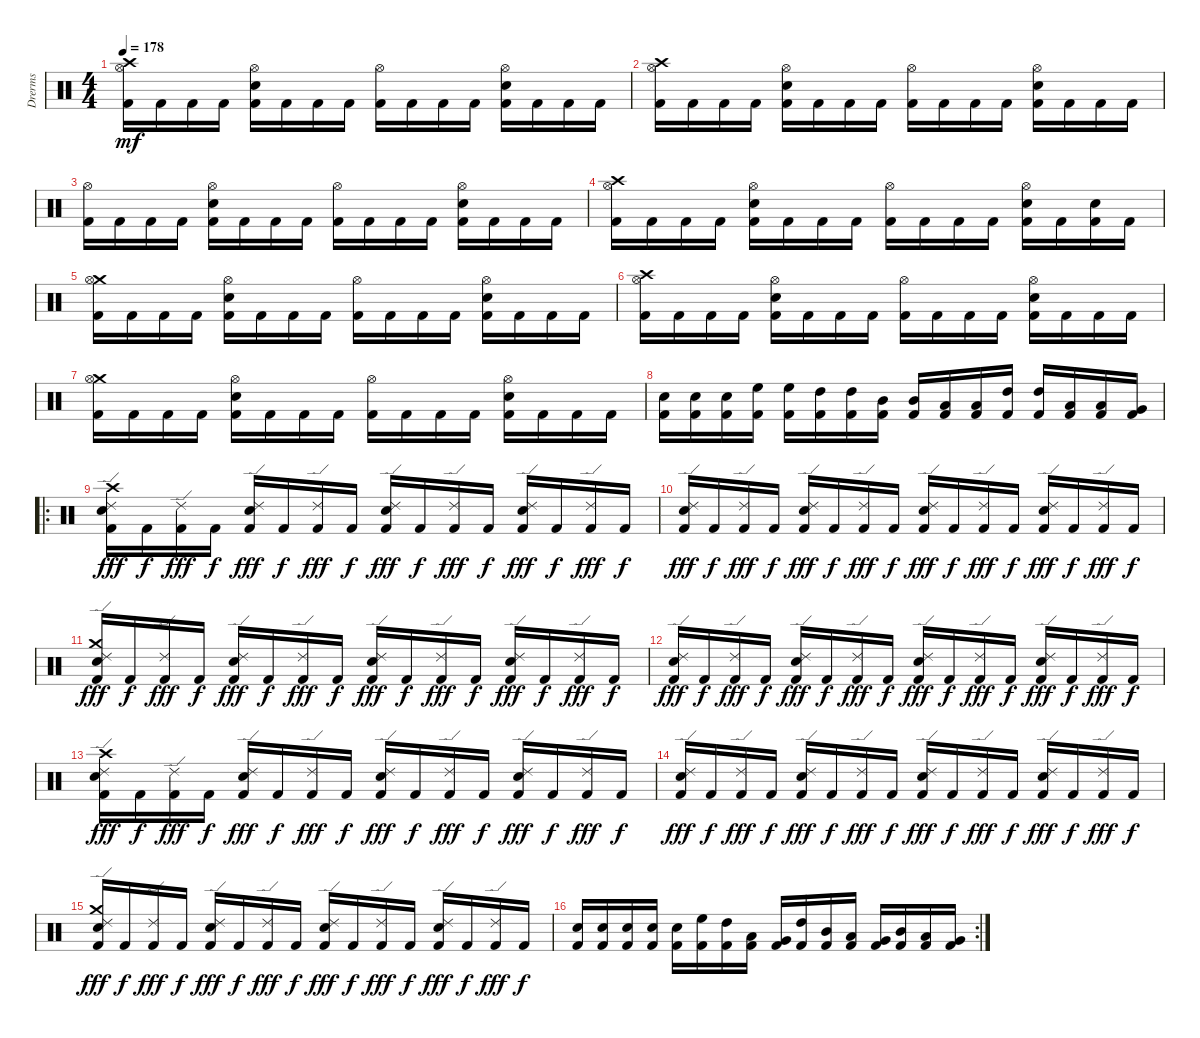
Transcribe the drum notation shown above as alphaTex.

\track ("Drerms" "Drerms") {instrument percussion}
\staff {score}
\articulation defaults
\ts (4 4)
\tempo 178
\clef neutral
\ks c
("Crash high (hit)" "Hi-Hat (open)" "Kick (hit) 2").16{dy mf} "Kick (hit) 2".16 "Kick (hit) 2".16 "Kick (hit) 2".16 ("Snare (hit) 2" "Hi-Hat (open)" "Kick (hit) 2").16 "Kick (hit) 2".16 "Kick (hit) 2".16 "Kick (hit) 2".16 ("Hi-Hat (open)" "Kick (hit) 2").16 "Kick (hit) 2".16 "Kick (hit) 2".16 "Kick (hit) 2".16 ("Snare (hit) 2" "Hi-Hat (open)" "Kick (hit) 2").16 "Kick (hit) 2".16 "Kick (hit) 2".16 "Kick (hit) 2".16 |
("Crash high (hit)" "Hi-Hat (open)" "Kick (hit) 2").16 "Kick (hit) 2".16 "Kick (hit) 2".16 "Kick (hit) 2".16 ("Snare (hit) 2" "Hi-Hat (open)" "Kick (hit) 2").16 "Kick (hit) 2".16 "Kick (hit) 2".16 "Kick (hit) 2".16 ("Hi-Hat (open)" "Kick (hit) 2").16 "Kick (hit) 2".16 "Kick (hit) 2".16 "Kick (hit) 2".16 ("Snare (hit) 2" "Hi-Hat (open)" "Kick (hit) 2").16 "Kick (hit) 2".16 "Kick (hit) 2".16 "Kick (hit) 2".16 |
("Hi-Hat (open)" "Kick (hit) 2").16 "Kick (hit) 2".16 "Kick (hit) 2".16 "Kick (hit) 2".16 ("Snare (hit) 2" "Hi-Hat (open)" "Kick (hit) 2").16 "Kick (hit) 2".16 "Kick (hit) 2".16 "Kick (hit) 2".16 ("Hi-Hat (open)" "Kick (hit) 2").16 "Kick (hit) 2".16 "Kick (hit) 2".16 "Kick (hit) 2".16 ("Snare (hit) 2" "Hi-Hat (open)" "Kick (hit) 2").16 "Kick (hit) 2".16 "Kick (hit) 2".16 "Kick (hit) 2".16 |
("Crash high (hit)" "Hi-Hat (open)" "Kick (hit) 2").16 "Kick (hit) 2".16 "Kick (hit) 2".16 "Kick (hit) 2".16 ("Snare (hit) 2" "Hi-Hat (open)" "Kick (hit) 2").16 "Kick (hit) 2".16 "Kick (hit) 2".16 "Kick (hit) 2".16 ("Hi-Hat (open)" "Kick (hit) 2").16 "Kick (hit) 2".16 "Kick (hit) 2".16 "Kick (hit) 2".16 ("Snare (hit) 2" "Hi-Hat (open)" "Kick (hit) 2").16 "Kick (hit) 2".16 ("Snare (hit) 2" "Kick (hit) 2").16 "Kick (hit) 2".16 |
("Crash medium (hit)" "Hi-Hat (open)" "Kick (hit) 2").16 "Kick (hit) 2".16 "Kick (hit) 2".16 "Kick (hit) 2".16 ("Snare (hit) 2" "Hi-Hat (open)" "Kick (hit) 2").16 "Kick (hit) 2".16 "Kick (hit) 2".16 "Kick (hit) 2".16 ("Hi-Hat (open)" "Kick (hit) 2").16 "Kick (hit) 2".16 "Kick (hit) 2".16 "Kick (hit) 2".16 ("Snare (hit) 2" "Hi-Hat (open)" "Kick (hit) 2").16 "Kick (hit) 2".16 "Kick (hit) 2".16 "Kick (hit) 2".16 |
("Crash high (hit)" "Hi-Hat (open)" "Kick (hit) 2").16 "Kick (hit) 2".16 "Kick (hit) 2".16 "Kick (hit) 2".16 ("Snare (hit) 2" "Hi-Hat (open)" "Kick (hit) 2").16 "Kick (hit) 2".16 "Kick (hit) 2".16 "Kick (hit) 2".16 ("Hi-Hat (open)" "Kick (hit) 2").16 "Kick (hit) 2".16 "Kick (hit) 2".16 "Kick (hit) 2".16 ("Snare (hit) 2" "Hi-Hat (open)" "Kick (hit) 2").16 "Kick (hit) 2".16 "Kick (hit) 2".16 "Kick (hit) 2".16 |
("Crash medium (hit)" "Hi-Hat (open)" "Kick (hit) 2").16 "Kick (hit) 2".16 "Kick (hit) 2".16 "Kick (hit) 2".16 ("Snare (hit) 2" "Hi-Hat (open)" "Kick (hit) 2").16 "Kick (hit) 2".16 "Kick (hit) 2".16 "Kick (hit) 2".16 ("Hi-Hat (open)" "Kick (hit) 2").16 "Kick (hit) 2".16 "Kick (hit) 2".16 "Kick (hit) 2".16 ("Snare (hit) 2" "Hi-Hat (open)" "Kick (hit) 2").16 "Kick (hit) 2".16 "Kick (hit) 2".16 "Kick (hit) 2".16 |
("Snare (hit) 2" "Kick (hit) 2").16 ("Snare (hit) 2" "Kick (hit) 2").16 ("Snare (hit) 2" "Kick (hit) 2").16 ("High Floor Tom (hit)" "Kick (hit) 2").16 ("High Floor Tom (hit)" "Kick (hit) 2").16 ("High Tom (hit)" "Kick (hit) 2").16 ("High Tom (hit)" "Kick (hit) 2").16 ("Mid Tom (hit)" "Kick (hit) 2").16 ("Mid Tom (hit)" "Kick (hit) 2").16 ("Low Tom (hit)" "Kick (hit) 2").16 ("Low Tom (hit)" "Kick (hit) 2").16 ("High Tom (hit)" "Kick (hit) 2").16 ("High Tom (hit)" "Kick (hit) 2").16 ("Low Tom (hit)" "Kick (hit) 2").16 ("Low Tom (hit)" "Kick (hit) 2").16 ("Very Low Tom (hit)" "Kick (hit) 2").16 |
\ro
("Crash high (hit)" "Snare (hit) 2" "Ride (edge) 2" "Kick (hit) 2").16{dy fff} "Kick (hit) 2".16{dy f} ("Ride (edge) 2" "Kick (hit) 2").16{dy fff} "Kick (hit) 2".16{dy f} ("Snare (hit) 2" "Ride (edge) 2" "Kick (hit) 2").16{dy fff} "Kick (hit) 2".16{dy f} ("Ride (edge) 2" "Kick (hit) 2").16{dy fff} "Kick (hit) 2".16{dy f} ("Snare (hit) 2" "Ride (edge) 2" "Kick (hit) 2").16{dy fff} "Kick (hit) 2".16{dy f} ("Ride (edge) 2" "Kick (hit) 2").16{dy fff} "Kick (hit) 2".16{dy f} ("Snare (hit) 2" "Ride (edge) 2" "Kick (hit) 2").16{dy fff} "Kick (hit) 2".16{dy f} ("Ride (edge) 2" "Kick (hit) 2").16{dy fff} "Kick (hit) 2".16{dy f} |
("Snare (hit) 2" "Ride (edge) 2" "Kick (hit) 2").16{dy fff} "Kick (hit) 2".16{dy f} ("Ride (edge) 2" "Kick (hit) 2").16{dy fff} "Kick (hit) 2".16{dy f} ("Snare (hit) 2" "Ride (edge) 2" "Kick (hit) 2").16{dy fff} "Kick (hit) 2".16{dy f} ("Ride (edge) 2" "Kick (hit) 2").16{dy fff} "Kick (hit) 2".16{dy f} ("Snare (hit) 2" "Ride (edge) 2" "Kick (hit) 2").16{dy fff} "Kick (hit) 2".16{dy f} ("Ride (edge) 2" "Kick (hit) 2").16{dy fff} "Kick (hit) 2".16{dy f} ("Snare (hit) 2" "Ride (edge) 2" "Kick (hit) 2").16{dy fff} "Kick (hit) 2".16{dy f} ("Ride (edge) 2" "Kick (hit) 2").16{dy fff} "Kick (hit) 2".16{dy f} |
("Crash medium (hit)" "Snare (hit) 2" "Ride (edge) 2" "Kick (hit) 2").16{dy fff} "Kick (hit) 2".16{dy f} ("Ride (edge) 2" "Kick (hit) 2").16{dy fff} "Kick (hit) 2".16{dy f} ("Snare (hit) 2" "Ride (edge) 2" "Kick (hit) 2").16{dy fff} "Kick (hit) 2".16{dy f} ("Ride (edge) 2" "Kick (hit) 2").16{dy fff} "Kick (hit) 2".16{dy f} ("Snare (hit) 2" "Ride (edge) 2" "Kick (hit) 2").16{dy fff} "Kick (hit) 2".16{dy f} ("Ride (edge) 2" "Kick (hit) 2").16{dy fff} "Kick (hit) 2".16{dy f} ("Snare (hit) 2" "Ride (edge) 2" "Kick (hit) 2").16{dy fff} "Kick (hit) 2".16{dy f} ("Ride (edge) 2" "Kick (hit) 2").16{dy fff} "Kick (hit) 2".16{dy f} |
("Snare (hit) 2" "Ride (edge) 2" "Kick (hit) 2").16{dy fff} "Kick (hit) 2".16{dy f} ("Ride (edge) 2" "Kick (hit) 2").16{dy fff} "Kick (hit) 2".16{dy f} ("Snare (hit) 2" "Ride (edge) 2" "Kick (hit) 2").16{dy fff} "Kick (hit) 2".16{dy f} ("Ride (edge) 2" "Kick (hit) 2").16{dy fff} "Kick (hit) 2".16{dy f} ("Snare (hit) 2" "Ride (edge) 2" "Kick (hit) 2").16{dy fff} "Kick (hit) 2".16{dy f} ("Ride (edge) 2" "Kick (hit) 2").16{dy fff} "Kick (hit) 2".16{dy f} ("Snare (hit) 2" "Ride (edge) 2" "Kick (hit) 2").16{dy fff} "Kick (hit) 2".16{dy f} ("Ride (edge) 2" "Kick (hit) 2").16{dy fff} "Kick (hit) 2".16{dy f} |
("Crash high (hit)" "Snare (hit) 2" "Ride (edge) 2" "Kick (hit) 2").16{dy fff} "Kick (hit) 2".16{dy f} ("Ride (edge) 2" "Kick (hit) 2").16{dy fff} "Kick (hit) 2".16{dy f} ("Snare (hit) 2" "Ride (edge) 2" "Kick (hit) 2").16{dy fff} "Kick (hit) 2".16{dy f} ("Ride (edge) 2" "Kick (hit) 2").16{dy fff} "Kick (hit) 2".16{dy f} ("Snare (hit) 2" "Ride (edge) 2" "Kick (hit) 2").16{dy fff} "Kick (hit) 2".16{dy f} ("Ride (edge) 2" "Kick (hit) 2").16{dy fff} "Kick (hit) 2".16{dy f} ("Snare (hit) 2" "Ride (edge) 2" "Kick (hit) 2").16{dy fff} "Kick (hit) 2".16{dy f} ("Ride (edge) 2" "Kick (hit) 2").16{dy fff} "Kick (hit) 2".16{dy f} |
("Snare (hit) 2" "Ride (edge) 2" "Kick (hit) 2").16{dy fff} "Kick (hit) 2".16{dy f} ("Ride (edge) 2" "Kick (hit) 2").16{dy fff} "Kick (hit) 2".16{dy f} ("Snare (hit) 2" "Ride (edge) 2" "Kick (hit) 2").16{dy fff} "Kick (hit) 2".16{dy f} ("Ride (edge) 2" "Kick (hit) 2").16{dy fff} "Kick (hit) 2".16{dy f} ("Snare (hit) 2" "Ride (edge) 2" "Kick (hit) 2").16{dy fff} "Kick (hit) 2".16{dy f} ("Ride (edge) 2" "Kick (hit) 2").16{dy fff} "Kick (hit) 2".16{dy f} ("Snare (hit) 2" "Ride (edge) 2" "Kick (hit) 2").16{dy fff} "Kick (hit) 2".16{dy f} ("Ride (edge) 2" "Kick (hit) 2").16{dy fff} "Kick (hit) 2".16{dy f} |
("Crash medium (hit)" "Snare (hit) 2" "Ride (edge) 2" "Kick (hit) 2").16{dy fff} "Kick (hit) 2".16{dy f} ("Ride (edge) 2" "Kick (hit) 2").16{dy fff} "Kick (hit) 2".16{dy f} ("Snare (hit) 2" "Ride (edge) 2" "Kick (hit) 2").16{dy fff} "Kick (hit) 2".16{dy f} ("Ride (edge) 2" "Kick (hit) 2").16{dy fff} "Kick (hit) 2".16{dy f} ("Snare (hit) 2" "Ride (edge) 2" "Kick (hit) 2").16{dy fff} "Kick (hit) 2".16{dy f} ("Ride (edge) 2" "Kick (hit) 2").16{dy fff} "Kick (hit) 2".16{dy f} ("Snare (hit) 2" "Ride (edge) 2" "Kick (hit) 2").16{dy fff} "Kick (hit) 2".16{dy f} ("Ride (edge) 2" "Kick (hit) 2").16{dy fff} "Kick (hit) 2".16{dy f} |
\rc 2
("Snare (hit) 2" "Kick (hit) 2").16 ("Snare (hit) 2" "Kick (hit) 2").16 ("Snare (hit) 2" "Kick (hit) 2").16 ("Snare (hit) 2" "Kick (hit) 2").16 ("Snare (hit) 2" "Kick (hit) 2").16 ("High Floor Tom (hit)" "Kick (hit) 2").16 ("High Tom (hit)" "Kick (hit) 2").16 ("Low Tom (hit)" "Kick (hit) 2").16 ("Very Low Tom (hit)" "Kick (hit) 2").16 ("High Tom (hit)" "Kick (hit) 2").16 ("Mid Tom (hit)" "Kick (hit) 2").16 ("Low Tom (hit)" "Kick (hit) 2").16 ("Very Low Tom (hit)" "Kick (hit) 2").16 ("Mid Tom (hit)" "Kick (hit) 2").16 ("Low Tom (hit)" "Kick (hit) 2").16 ("Very Low Tom (hit)" "Kick (hit) 2").16
